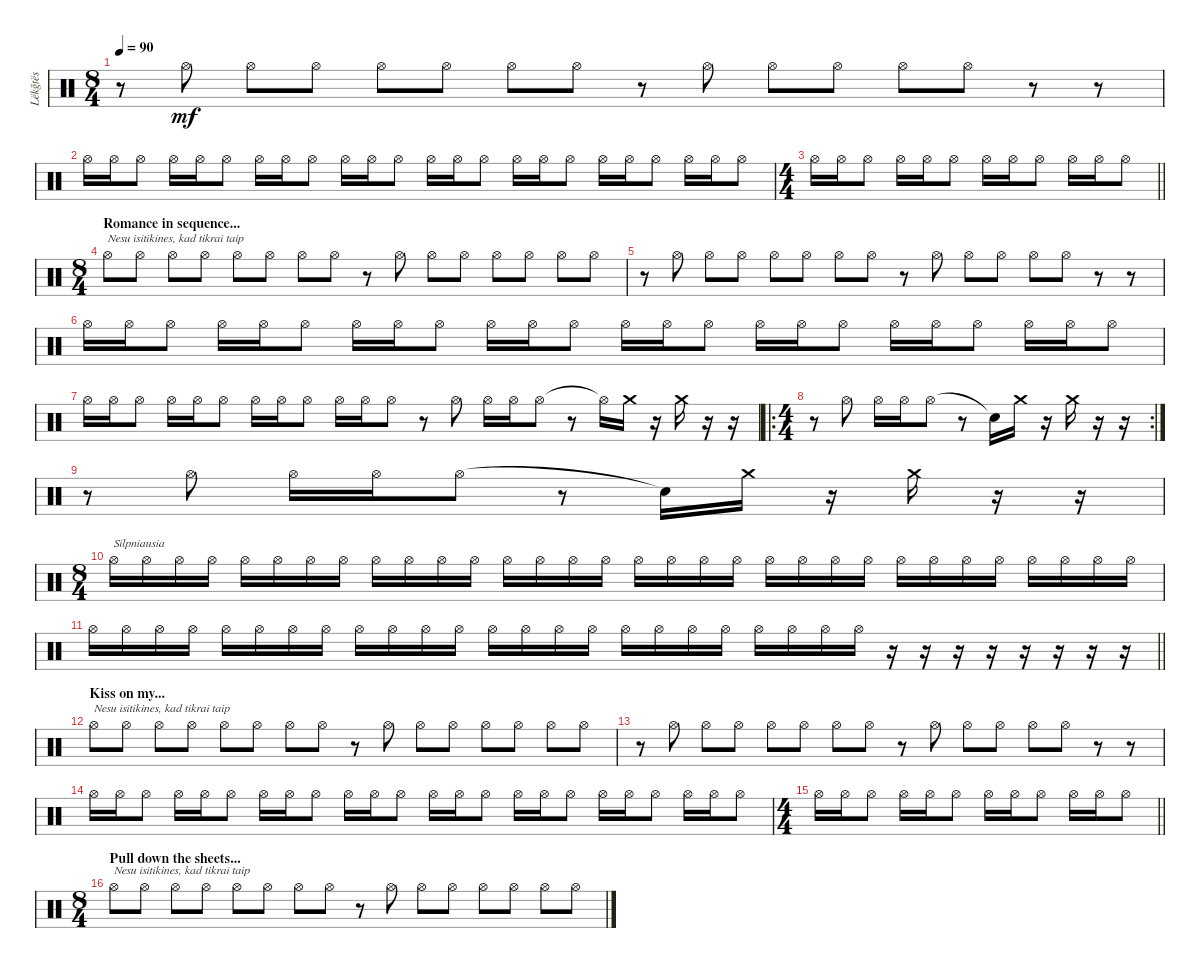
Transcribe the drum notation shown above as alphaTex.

\track ("Lëkğtës" "Lëkğtës") {instrument percussion}
\staff {score}
\articulation defaults
\ts (8 4)
\tempo 90
\clef neutral
\ks c
r.8{dy mf} "Hi-Hat (open)".8 "Hi-Hat (open)".8 "Hi-Hat (open)".8 "Hi-Hat (open)".8 "Hi-Hat (open)".8 "Hi-Hat (open)".8 "Hi-Hat (open)".8 r.8 "Hi-Hat (open)".8 "Hi-Hat (open)".8 "Hi-Hat (open)".8 "Hi-Hat (open)".8 "Hi-Hat (open)".8 r.8 r.8 |
"Hi-Hat (open)".16 "Hi-Hat (open)".16 "Hi-Hat (open)".8 "Hi-Hat (open)".16 "Hi-Hat (open)".16 "Hi-Hat (open)".8 "Hi-Hat (open)".16 "Hi-Hat (open)".16 "Hi-Hat (open)".8 "Hi-Hat (open)".16 "Hi-Hat (open)".16 "Hi-Hat (open)".8 "Hi-Hat (open)".16 "Hi-Hat (open)".16 "Hi-Hat (open)".8 "Hi-Hat (open)".16 "Hi-Hat (open)".16 "Hi-Hat (open)".8 "Hi-Hat (open)".16 "Hi-Hat (open)".16 "Hi-Hat (open)".8 "Hi-Hat (open)".16 "Hi-Hat (open)".16 "Hi-Hat (open)".8 |
\ts (4 4)
\barLineRight lightlight "Hi-Hat (open)".16 "Hi-Hat (open)".16 "Hi-Hat (open)".8 "Hi-Hat (open)".16 "Hi-Hat (open)".16 "Hi-Hat (open)".8 "Hi-Hat (open)".16 "Hi-Hat (open)".16 "Hi-Hat (open)".8 "Hi-Hat (open)".16 "Hi-Hat (open)".16 "Hi-Hat (open)".8
|
\ts (8 4)
\section ("" "Romance in sequence...")
"Hi-Hat (open)".8{txt "Nesu isitikines, kad tikrai taip"} "Hi-Hat (open)".8 "Hi-Hat (open)".8 "Hi-Hat (open)".8 "Hi-Hat (open)".8 "Hi-Hat (open)".8 "Hi-Hat (open)".8 "Hi-Hat (open)".8 r.8 "Hi-Hat (open)".8 "Hi-Hat (open)".8 "Hi-Hat (open)".8 "Hi-Hat (open)".8 "Hi-Hat (open)".8 "Hi-Hat (open)".8 "Hi-Hat (open)".8 |
r.8 "Hi-Hat (open)".8 "Hi-Hat (open)".8 "Hi-Hat (open)".8 "Hi-Hat (open)".8 "Hi-Hat (open)".8 "Hi-Hat (open)".8 "Hi-Hat (open)".8 r.8 "Hi-Hat (open)".8 "Hi-Hat (open)".8 "Hi-Hat (open)".8 "Hi-Hat (open)".8 "Hi-Hat (open)".8 r.8 r.8 |
"Hi-Hat (open)".16 "Hi-Hat (open)".16 "Hi-Hat (open)".8 "Hi-Hat (open)".16 "Hi-Hat (open)".16 "Hi-Hat (open)".8 "Hi-Hat (open)".16 "Hi-Hat (open)".16 "Hi-Hat (open)".8 "Hi-Hat (open)".16 "Hi-Hat (open)".16 "Hi-Hat (open)".8 "Hi-Hat (open)".16 "Hi-Hat (open)".16 "Hi-Hat (open)".8 "Hi-Hat (open)".16 "Hi-Hat (open)".16 "Hi-Hat (open)".8 "Hi-Hat (open)".16 "Hi-Hat (open)".16 "Hi-Hat (open)".8 "Hi-Hat (open)".16 "Hi-Hat (open)".16 "Hi-Hat (open)".8 |
"Hi-Hat (open)".16 "Hi-Hat (open)".16 "Hi-Hat (open)".8 "Hi-Hat (open)".16 "Hi-Hat (open)".16 "Hi-Hat (open)".8 "Hi-Hat (open)".16 "Hi-Hat (open)".16 "Hi-Hat (open)".8 "Hi-Hat (open)".16 "Hi-Hat (open)".16 "Hi-Hat (open)".8 r.8 "Hi-Hat (open)".8 "Hi-Hat (open)".16 "Hi-Hat (open)".16 "Hi-Hat (open)".8 r.8 "Hi-Hat (open)"{t}.16 "Crash medium (hit)".16 r.16 "Crash medium (hit)".16 r.16 r.16 |
\ro
\rc 2
\ts (4 4)
r.8 "Hi-Hat (open)".8 "Hi-Hat (open)".16 "Hi-Hat (open)".16 "Hi-Hat (open)".8 r.8 "Snare (hit)"{t}.16 "Crash medium (hit)".16 r.16 "Crash medium (hit)".16 r.16 r.16 |
r.8 "Hi-Hat (open)".8 "Hi-Hat (open)".16 "Hi-Hat (open)".16 "Hi-Hat (open)".8 r.8 "Snare (hit)"{t}.16 "Crash medium (hit)".16 r.16 "Crash medium (hit)".16 r.16 r.16 |
\ts (8 4)
"Hi-Hat (open)".16{txt "Silpniausia"} "Hi-Hat (open)".16 "Hi-Hat (open)".16 "Hi-Hat (open)".16 "Hi-Hat (open)".16 "Hi-Hat (open)".16 "Hi-Hat (open)".16 "Hi-Hat (open)".16 "Hi-Hat (open)".16 "Hi-Hat (open)".16 "Hi-Hat (open)".16 "Hi-Hat (open)".16 "Hi-Hat (open)".16 "Hi-Hat (open)".16 "Hi-Hat (open)".16 "Hi-Hat (open)".16 "Hi-Hat (open)".16 "Hi-Hat (open)".16 "Hi-Hat (open)".16 "Hi-Hat (open)".16 "Hi-Hat (open)".16 "Hi-Hat (open)".16 "Hi-Hat (open)".16 "Hi-Hat (open)".16 "Hi-Hat (open)".16 "Hi-Hat (open)".16 "Hi-Hat (open)".16 "Hi-Hat (open)".16 "Hi-Hat (open)".16 "Hi-Hat (open)".16 "Hi-Hat (open)".16 "Hi-Hat (open)".16 |
\barLineRight lightlight "Hi-Hat (open)".16 "Hi-Hat (open)".16 "Hi-Hat (open)".16 "Hi-Hat (open)".16 "Hi-Hat (open)".16 "Hi-Hat (open)".16 "Hi-Hat (open)".16 "Hi-Hat (open)".16 "Hi-Hat (open)".16 "Hi-Hat (open)".16 "Hi-Hat (open)".16 "Hi-Hat (open)".16 "Hi-Hat (open)".16 "Hi-Hat (open)".16 "Hi-Hat (open)".16 "Hi-Hat (open)".16 "Hi-Hat (open)".16 "Hi-Hat (open)".16 "Hi-Hat (open)".16 "Hi-Hat (open)".16 "Hi-Hat (open)".16 "Hi-Hat (open)".16 "Hi-Hat (open)".16 "Hi-Hat (open)".16
r.16 r.16 r.16 r.16 r.16 r.16 r.16 r.16 |
\section ("" "Kiss on my...")
"Hi-Hat (open)".8{txt "Nesu isitikines, kad tikrai taip"} "Hi-Hat (open)".8 "Hi-Hat (open)".8 "Hi-Hat (open)".8 "Hi-Hat (open)".8 "Hi-Hat (open)".8 "Hi-Hat (open)".8 "Hi-Hat (open)".8 r.8 "Hi-Hat (open)".8 "Hi-Hat (open)".8 "Hi-Hat (open)".8 "Hi-Hat (open)".8 "Hi-Hat (open)".8 "Hi-Hat (open)".8 "Hi-Hat (open)".8 |
r.8 "Hi-Hat (open)".8 "Hi-Hat (open)".8 "Hi-Hat (open)".8 "Hi-Hat (open)".8 "Hi-Hat (open)".8 "Hi-Hat (open)".8 "Hi-Hat (open)".8 r.8 "Hi-Hat (open)".8 "Hi-Hat (open)".8 "Hi-Hat (open)".8 "Hi-Hat (open)".8 "Hi-Hat (open)".8 r.8 r.8 |
"Hi-Hat (open)".16 "Hi-Hat (open)".16 "Hi-Hat (open)".8 "Hi-Hat (open)".16 "Hi-Hat (open)".16 "Hi-Hat (open)".8 "Hi-Hat (open)".16 "Hi-Hat (open)".16 "Hi-Hat (open)".8 "Hi-Hat (open)".16 "Hi-Hat (open)".16 "Hi-Hat (open)".8 "Hi-Hat (open)".16 "Hi-Hat (open)".16 "Hi-Hat (open)".8 "Hi-Hat (open)".16 "Hi-Hat (open)".16 "Hi-Hat (open)".8 "Hi-Hat (open)".16 "Hi-Hat (open)".16 "Hi-Hat (open)".8 "Hi-Hat (open)".16 "Hi-Hat (open)".16 "Hi-Hat (open)".8 |
\ts (4 4)
\barLineRight lightlight "Hi-Hat (open)".16 "Hi-Hat (open)".16 "Hi-Hat (open)".8 "Hi-Hat (open)".16 "Hi-Hat (open)".16 "Hi-Hat (open)".8 "Hi-Hat (open)".16 "Hi-Hat (open)".16 "Hi-Hat (open)".8 "Hi-Hat (open)".16 "Hi-Hat (open)".16 "Hi-Hat (open)".8
|
\ts (8 4)
\section ("" "Pull down the sheets...")
"Hi-Hat (open)".8{txt "Nesu isitikines, kad tikrai taip"} "Hi-Hat (open)".8 "Hi-Hat (open)".8 "Hi-Hat (open)".8 "Hi-Hat (open)".8 "Hi-Hat (open)".8 "Hi-Hat (open)".8 "Hi-Hat (open)".8 r.8 "Hi-Hat (open)".8 "Hi-Hat (open)".8 "Hi-Hat (open)".8 "Hi-Hat (open)".8 "Hi-Hat (open)".8 "Hi-Hat (open)".8 "Hi-Hat (open)".8
